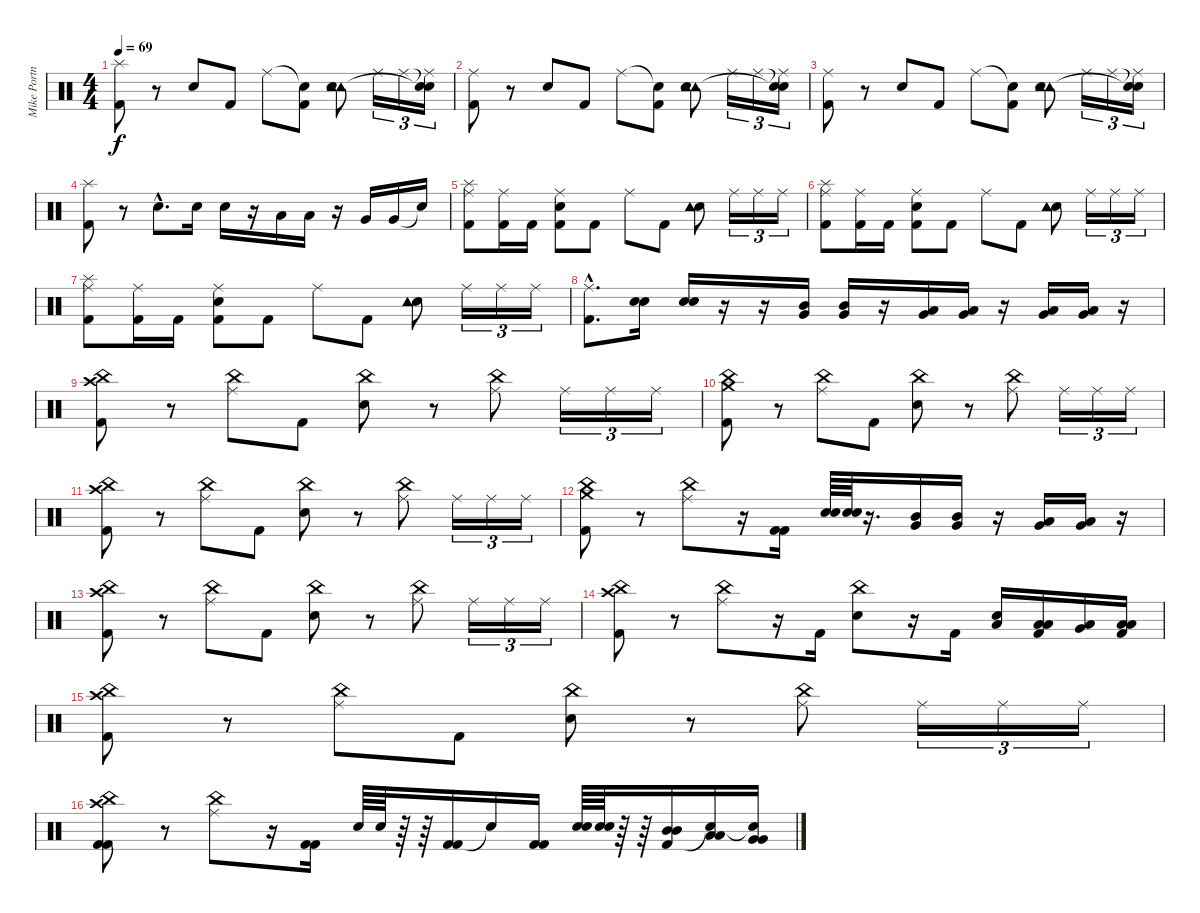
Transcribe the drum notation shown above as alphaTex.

\track ("Mike Portnoy" "Mike Portn") {instrument percussion}
\staff {score}
\articulation defaults
\ts (4 4)
\tempo 69
\clef neutral
\ks c
("Splash (hit)" "Kick (hit) 2").8{dy f} r.8 "Electric Snare (hit)".8 "Kick (hit) 2".8 "Ride (middle)".8 ("Snare (hit)"{t} "Kick (hit) 2").8 ("Tambourine (hit)" "Tambourine (hit)" "Electric Snare (hit)").8 "Ride (middle)".16{tu (3 2)} "Ride (middle)".16{tu (3 2)} ("Snare (hit)"{t} "Snare (hit)"{t} "Ride (middle)").16{tu (3 2)} |
("Ride (middle)" "Kick (hit) 2").8 r.8 "Electric Snare (hit)".8 "Kick (hit) 2".8 "Ride (middle)".8 ("Snare (hit)"{t} "Kick (hit) 2").8 ("Tambourine (hit)" "Tambourine (hit)" "Electric Snare (hit)").8 "Ride (middle)".16{tu (3 2)} "Ride (middle)".16{tu (3 2)} ("Snare (hit)"{t} "Snare (hit)"{t} "Ride (middle)").16{tu (3 2)} |
("Ride (middle)" "Kick (hit) 2").8 r.8 "Electric Snare (hit)".8 "Kick (hit) 2".8 "Ride (middle)".8 ("Snare (hit)"{t} "Kick (hit) 2").8 ("Tambourine (hit)" "Tambourine (hit)" "Electric Snare (hit)").8 "Ride (middle)".16{tu (3 2)} "Ride (middle)".16{tu (3 2)} ("Snare (hit)"{t} "Snare (hit)"{t} "Ride (middle)").16{tu (3 2)} |
("Splash (hit)" "Kick (hit) 2").8 r.8 "Snare (hit) 2"{hac}.8{d} "Electric Snare (hit)".16 "Electric Snare (hit)".16 r.16 "Low Tom (hit)".16 "Low Tom (hit)".16 r.16 "Very Low Tom (hit)".16 "Very Low Tom (hit)".16 "Snare (hit)"{t}.16 |
("Splash (hit)" "Ride (middle)" "Kick (hit) 2").8 ("Ride (middle)" "Kick (hit) 2").16 "Kick (hit) 2".16 ("Ride (middle)" "Electric Snare (hit)" "Kick (hit) 2").8 "Kick (hit) 2".8 "Ride (middle)".8 "Kick (hit) 2".8 ("Electric Snare (hit)" "Tambourine (hit)" "Tambourine (hit)").8 "Ride (middle)".16{tu (3 2)} "Ride (middle)".16{tu (3 2)} "Ride (middle)".16{tu (3 2)} |
("Splash (hit)" "Ride (middle)" "Kick (hit) 2").8 ("Ride (middle)" "Kick (hit) 2").16 "Kick (hit) 2".16 ("Ride (middle)" "Electric Snare (hit)" "Kick (hit) 2").8 "Kick (hit) 2".8 "Ride (middle)".8 "Kick (hit) 2".8 ("Electric Snare (hit)" "Tambourine (hit)" "Tambourine (hit)").8 "Ride (middle)".16{tu (3 2)} "Ride (middle)".16{tu (3 2)} "Ride (middle)".16{tu (3 2)} |
("Splash (hit)" "Ride (middle)" "Kick (hit) 2").8 ("Ride (middle)" "Kick (hit) 2").16 "Kick (hit) 2".16 ("Ride (middle)" "Electric Snare (hit)" "Kick (hit) 2").8 "Kick (hit) 2".8 "Ride (middle)".8 "Kick (hit) 2".8 ("Electric Snare (hit)" "Tambourine (hit)" "Tambourine (hit)").8 "Ride (middle)".16{tu (3 2)} "Ride (middle)".16{tu (3 2)} "Ride (middle)".16{tu (3 2)} |
("Ride (middle)"{hac} "Kick (hit) 2"{hac}).8{d} ("Electric Snare (hit)" "Electric Snare (hit)").16 ("Electric Snare (hit)" "Electric Snare (hit)").16 r.16 r.16 ("Mid Tom (hit)" "Very Low Tom (hit)").16 ("Mid Tom (hit)" "Very Low Tom (hit)").16 r.16 ("Low Tom (hit)" "Very Low Tom (hit)").16 ("Low Tom (hit)" "Very Low Tom (hit)").16 r.16 ("Very Low Tom (hit)" "Low Floor Tom (hit)").16 ("Very Low Tom (hit)" "Low Floor Tom (hit)").16 r.16 |
("China (hit)" "Crash high (hit)" "Kick (hit) 2").8 r.8 ("China (hit)" "Ride (middle)").8 "Kick (hit) 2".8 ("China (hit)" "Electric Snare (hit)").8 r.8 ("China (hit)" "Ride (middle)").8 "Ride (middle)".16{tu (3 2)} "Ride (middle)".16{tu (3 2)} "Ride (middle)".16{tu (3 2)} |
("China (hit)" "Crash medium (hit)" "Kick (hit) 2").8 r.8 ("China (hit)" "Ride (middle)").8 "Kick (hit) 2".8 ("China (hit)" "Electric Snare (hit)").8 r.8 ("China (hit)" "Ride (middle)").8 "Ride (middle)".16{tu (3 2)} "Ride (middle)".16{tu (3 2)} "Ride (middle)".16{tu (3 2)} |
("China (hit)" "Crash high (hit)" "Kick (hit) 2").8 r.8 ("China (hit)" "Ride (middle)").8 "Kick (hit) 2".8 ("China (hit)" "Electric Snare (hit)").8 r.8 ("China (hit)" "Ride (middle)").8 "Ride (middle)".16{tu (3 2)} "Ride (middle)".16{tu (3 2)} "Ride (middle)".16{tu (3 2)} |
("China (hit)" "Crash medium (hit)" "Kick (hit) 2").8 r.8 ("China (hit)" "Ride (middle)").8 r.16 ("Kick (hit) 2" "Kick (hit) 2").16 ("Electric Snare (hit)" "Electric Snare (hit)").64 ("Electric Snare (hit)" "Electric Snare (hit)").64 r.16{d} ("Mid Tom (hit)" "Very Low Tom (hit)").16 ("Mid Tom (hit)" "Very Low Tom (hit)").16 r.16 ("Very Low Tom (hit)" "Low Floor Tom (hit)").16 ("Very Low Tom (hit)" "Low Floor Tom (hit)").16 r.16 |
("China (hit)" "Crash high (hit)" "Kick (hit) 2").8 r.8 ("China (hit)" "Ride (middle)").8 "Kick (hit) 2".8 ("China (hit)" "Electric Snare (hit)").8 r.8 ("China (hit)" "Ride (middle)").8 "Ride (middle)".16{tu (3 2)} "Ride (middle)".16{tu (3 2)} "Ride (middle)".16{tu (3 2)} |
("China (hit)" "Crash high (hit)" "Kick (hit) 2").8 r.8 ("China (hit)" "Ride (middle)").8 r.16 "Kick (hit) 2".16 ("China (hit)" "Electric Snare (hit)").8 r.16 "Kick (hit) 2".16 ("Electric Snare (hit)" "Low Floor Tom (hit)").16 ("Low Tom (hit)" "Low Floor Tom (hit)" "Kick (hit) 2").16 ("Very Low Tom (hit)" "Low Floor Tom (hit)").16 ("Low Floor Tom (hit)" "Low Floor Tom (hit)" "Kick (hit) 2").16 |
("China (hit)" "Crash high (hit)" "Kick (hit) 2").8 r.8 ("China (hit)" "Ride (middle)").8 "Kick (hit) 2".8 ("China (hit)" "Electric Snare (hit)").8 r.8 ("China (hit)" "Ride (middle)").8 "Ride (middle)".16{tu (3 2)} "Ride (middle)".16{tu (3 2)} "Ride (middle)".16{tu (3 2)} |
("China (hit)" "Crash high (hit)" "Kick (hit) 2" "Kick (hit) 2").8 r.8 ("China (hit)" "Ride (middle)").8 r.16 ("Kick (hit) 2" "Kick (hit) 2").16 "Electric Snare (hit)".64 "Electric Snare (hit)".64 r.64 r.64 ("Kick (hit) 2" "Kick (hit) 2").16 "Snare (hit)"{t}.16 ("Kick (hit) 2" "Kick (hit) 2").16 ("Electric Snare (hit)" "Electric Snare (hit)").64 ("Electric Snare (hit)" "Electric Snare (hit)").64 r.64 r.64 ("Mid Tom (hit)" "Mid Tom (hit)" "Kick (hit) 2").16 ("Low Tom (hit)" "Low Tom (hit)" "Snare (hit)"{t}).16 ("Very Low Tom (hit)" "Very Low Tom (hit)" "Snare (hit)"{t}).16
